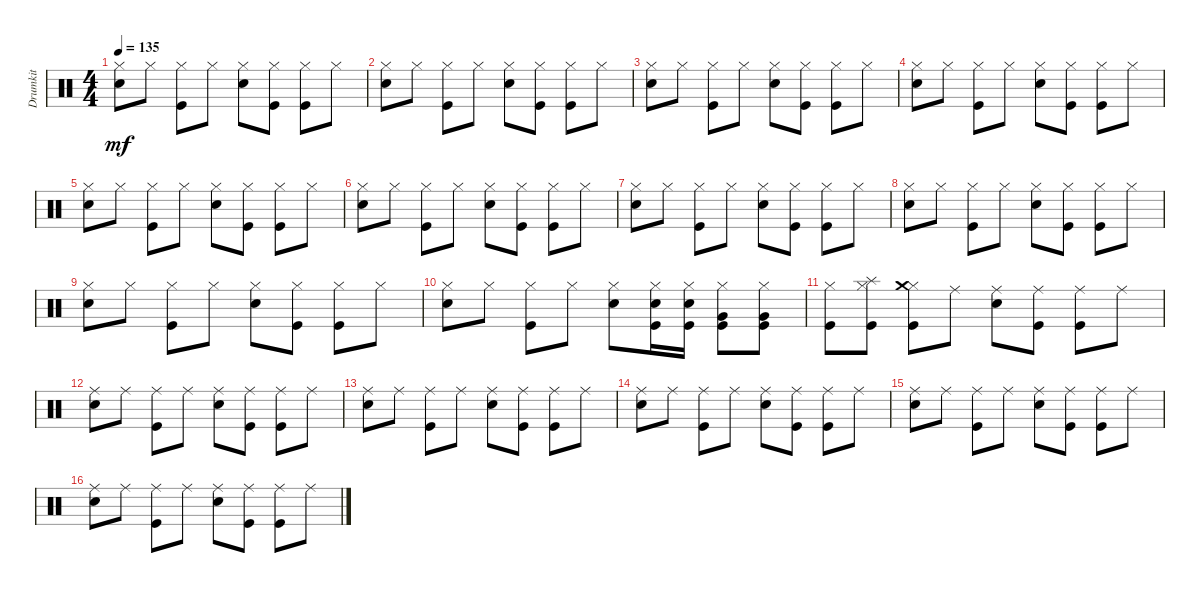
\track ("Drumkit" "Drumkit") {instrument percussion}
\staff {score}
\articulation defaults
\ts (4 4)
\tempo 135
\clef neutral
\ks c
("Snare (hit) 2" "Hi-Hat (closed)").8{dy mf} "Hi-Hat (closed)".8 ("Hi-Hat (closed)" "Kick (hit)").8 "Hi-Hat (closed)".8 ("Hi-Hat (closed)" "Snare (hit) 2").8 ("Hi-Hat (closed)" "Kick (hit)").8 ("Hi-Hat (closed)" "Kick (hit)").8 "Hi-Hat (closed)".8 |
("Snare (hit) 2" "Hi-Hat (closed)").8 "Hi-Hat (closed)".8 ("Hi-Hat (closed)" "Kick (hit)").8 "Hi-Hat (closed)".8 ("Hi-Hat (closed)" "Snare (hit) 2").8 ("Hi-Hat (closed)" "Kick (hit)").8 ("Hi-Hat (closed)" "Kick (hit)").8 "Hi-Hat (closed)".8 |
("Snare (hit) 2" "Hi-Hat (closed)").8 "Hi-Hat (closed)".8 ("Hi-Hat (closed)" "Kick (hit)").8 "Hi-Hat (closed)".8 ("Hi-Hat (closed)" "Snare (hit) 2").8 ("Hi-Hat (closed)" "Kick (hit)").8 ("Hi-Hat (closed)" "Kick (hit)").8 "Hi-Hat (closed)".8 |
("Snare (hit) 2" "Hi-Hat (closed)").8 "Hi-Hat (closed)".8 ("Hi-Hat (closed)" "Kick (hit)").8 "Hi-Hat (closed)".8 ("Hi-Hat (closed)" "Snare (hit) 2").8 ("Hi-Hat (closed)" "Kick (hit)").8 ("Hi-Hat (closed)" "Kick (hit)").8 "Hi-Hat (closed)".8 |
("Snare (hit) 2" "Hi-Hat (closed)").8 "Hi-Hat (closed)".8 ("Hi-Hat (closed)" "Kick (hit)").8 "Hi-Hat (closed)".8 ("Hi-Hat (closed)" "Snare (hit) 2").8 ("Hi-Hat (closed)" "Kick (hit)").8 ("Hi-Hat (closed)" "Kick (hit)").8 "Hi-Hat (closed)".8 |
("Snare (hit) 2" "Hi-Hat (closed)").8 "Hi-Hat (closed)".8 ("Hi-Hat (closed)" "Kick (hit)").8 "Hi-Hat (closed)".8 ("Hi-Hat (closed)" "Snare (hit) 2").8 ("Hi-Hat (closed)" "Kick (hit)").8 ("Hi-Hat (closed)" "Kick (hit)").8 "Hi-Hat (closed)".8 |
("Snare (hit) 2" "Hi-Hat (closed)").8 "Hi-Hat (closed)".8 ("Hi-Hat (closed)" "Kick (hit)").8 "Hi-Hat (closed)".8 ("Hi-Hat (closed)" "Snare (hit) 2").8 ("Hi-Hat (closed)" "Kick (hit)").8 ("Hi-Hat (closed)" "Kick (hit)").8 "Hi-Hat (closed)".8 |
("Snare (hit) 2" "Hi-Hat (closed)").8 "Hi-Hat (closed)".8 ("Hi-Hat (closed)" "Kick (hit)").8 "Hi-Hat (closed)".8 ("Hi-Hat (closed)" "Snare (hit) 2").8 ("Hi-Hat (closed)" "Kick (hit)").8 ("Hi-Hat (closed)" "Kick (hit)").8 "Hi-Hat (closed)".8 |
("Snare (hit) 2" "Hi-Hat (closed)").8 "Hi-Hat (closed)".8 ("Hi-Hat (closed)" "Kick (hit)").8 "Hi-Hat (closed)".8 ("Hi-Hat (closed)" "Snare (hit) 2").8 ("Hi-Hat (closed)" "Kick (hit)").8 ("Hi-Hat (closed)" "Kick (hit)").8 "Hi-Hat (closed)".8 |
("Snare (hit) 2" "Hi-Hat (closed)").8 "Hi-Hat (closed)".8 ("Hi-Hat (closed)" "Kick (hit)").8 "Hi-Hat (closed)".8 ("Hi-Hat (closed)" "Snare (hit) 2").8 ("Hi-Hat (closed)" "Kick (hit)" "Snare (hit) 2").16 ("Hi-Hat (closed)" "Kick (hit)" "Snare (hit) 2").16 ("Hi-Hat (closed)" "Kick (hit)" "Very Low Tom (hit)").8 ("Hi-Hat (closed)" "Kick (hit)" "Very Low Tom (hit)").8 |
("Hi-Hat (closed)" "Kick (hit)").8 ("Hi-Hat (closed)" "Kick (hit)" "Splash (hit)").8 ("Hi-Hat (closed)" "Kick (hit)" "Crash medium (hit)").8 "Ride (middle)".8 ("Snare (hit) 2" "Ride (middle)").8 ("Kick (hit)" "Ride (middle)").8 ("Kick (hit)" "Ride (middle)").8 "Ride (middle)".8 |
("Snare (hit) 2" "Ride (middle)").8 "Ride (middle)".8 ("Kick (hit)" "Ride (middle)").8 "Ride (middle)".8 ("Snare (hit) 2" "Ride (middle)").8 ("Kick (hit)" "Ride (middle)").8 ("Kick (hit)" "Ride (middle)").8 "Ride (middle)".8 |
("Snare (hit) 2" "Ride (middle)").8 "Ride (middle)".8 ("Kick (hit)" "Ride (middle)").8 "Ride (middle)".8 ("Snare (hit) 2" "Ride (middle)").8 ("Kick (hit)" "Ride (middle)").8 ("Kick (hit)" "Ride (middle)").8 "Ride (middle)".8 |
("Snare (hit) 2" "Ride (middle)").8 "Ride (middle)".8 ("Kick (hit)" "Ride (middle)").8 "Ride (middle)".8 ("Snare (hit) 2" "Ride (middle)").8 ("Kick (hit)" "Ride (middle)").8 ("Kick (hit)" "Ride (middle)").8 "Ride (middle)".8 |
("Snare (hit) 2" "Ride (middle)").8 "Ride (middle)".8 ("Kick (hit)" "Ride (middle)").8 "Ride (middle)".8 ("Snare (hit) 2" "Ride (middle)").8 ("Kick (hit)" "Ride (middle)").8 ("Kick (hit)" "Ride (middle)").8 "Ride (middle)".8 |
("Snare (hit) 2" "Ride (middle)").8 "Ride (middle)".8 ("Kick (hit)" "Ride (middle)").8 "Ride (middle)".8 ("Snare (hit) 2" "Ride (middle)").8 ("Kick (hit)" "Ride (middle)").8 ("Kick (hit)" "Ride (middle)").8 "Ride (middle)".8
